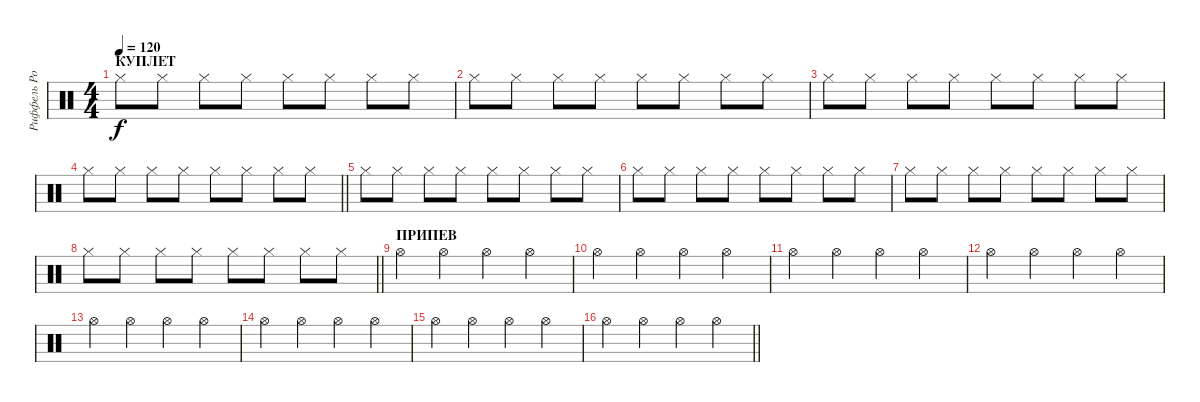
\track ("Риффель Роман(хэты)" "Риффель Ро") {instrument percussion}
\staff {score}
\articulation defaults
\ts (4 4)
\section ("" "КУПЛЕТ")
\tempo 120
\clef neutral
\ks c "Hi-Hat (closed)".8{dy f} "Hi-Hat (closed)".8 "Hi-Hat (closed)".8 "Hi-Hat (closed)".8 "Hi-Hat (closed)".8 "Hi-Hat (closed)".8 "Hi-Hat (closed)".8 "Hi-Hat (closed)".8
|
"Hi-Hat (closed)".8 "Hi-Hat (closed)".8 "Hi-Hat (closed)".8 "Hi-Hat (closed)".8 "Hi-Hat (closed)".8 "Hi-Hat (closed)".8 "Hi-Hat (closed)".8 "Hi-Hat (closed)".8 |
"Hi-Hat (closed)".8 "Hi-Hat (closed)".8 "Hi-Hat (closed)".8 "Hi-Hat (closed)".8 "Hi-Hat (closed)".8 "Hi-Hat (closed)".8 "Hi-Hat (closed)".8 "Hi-Hat (closed)".8 |
\barLineRight lightlight "Hi-Hat (closed)".8 "Hi-Hat (closed)".8 "Hi-Hat (closed)".8 "Hi-Hat (closed)".8 "Hi-Hat (closed)".8 "Hi-Hat (closed)".8 "Hi-Hat (closed)".8 "Hi-Hat (closed)".8
|
"Hi-Hat (closed)".8 "Hi-Hat (closed)".8 "Hi-Hat (closed)".8 "Hi-Hat (closed)".8 "Hi-Hat (closed)".8 "Hi-Hat (closed)".8 "Hi-Hat (closed)".8 "Hi-Hat (closed)".8 |
"Hi-Hat (closed)".8 "Hi-Hat (closed)".8 "Hi-Hat (closed)".8 "Hi-Hat (closed)".8 "Hi-Hat (closed)".8 "Hi-Hat (closed)".8 "Hi-Hat (closed)".8 "Hi-Hat (closed)".8 |
"Hi-Hat (closed)".8 "Hi-Hat (closed)".8 "Hi-Hat (closed)".8 "Hi-Hat (closed)".8 "Hi-Hat (closed)".8 "Hi-Hat (closed)".8 "Hi-Hat (closed)".8 "Hi-Hat (closed)".8 |
\barLineRight lightlight "Hi-Hat (closed)".8 "Hi-Hat (closed)".8 "Hi-Hat (closed)".8 "Hi-Hat (closed)".8 "Hi-Hat (closed)".8 "Hi-Hat (closed)".8 "Hi-Hat (closed)".8 "Hi-Hat (closed)".8
|
\section ("" "ПРИПЕВ")
"Hi-Hat (open)".4 "Hi-Hat (open)".4 "Hi-Hat (open)".4 "Hi-Hat (open)".4 |
"Hi-Hat (open)".4 "Hi-Hat (open)".4 "Hi-Hat (open)".4 "Hi-Hat (open)".4 |
"Hi-Hat (open)".4 "Hi-Hat (open)".4 "Hi-Hat (open)".4 "Hi-Hat (open)".4 |
"Hi-Hat (open)".4 "Hi-Hat (open)".4 "Hi-Hat (open)".4 "Hi-Hat (open)".4 |
"Hi-Hat (open)".4 "Hi-Hat (open)".4 "Hi-Hat (open)".4 "Hi-Hat (open)".4 |
"Hi-Hat (open)".4 "Hi-Hat (open)".4 "Hi-Hat (open)".4 "Hi-Hat (open)".4 |
"Hi-Hat (open)".4 "Hi-Hat (open)".4 "Hi-Hat (open)".4 "Hi-Hat (open)".4 |
\barLineRight lightlight "Hi-Hat (open)".4 "Hi-Hat (open)".4 "Hi-Hat (open)".4 "Hi-Hat (open)".4
